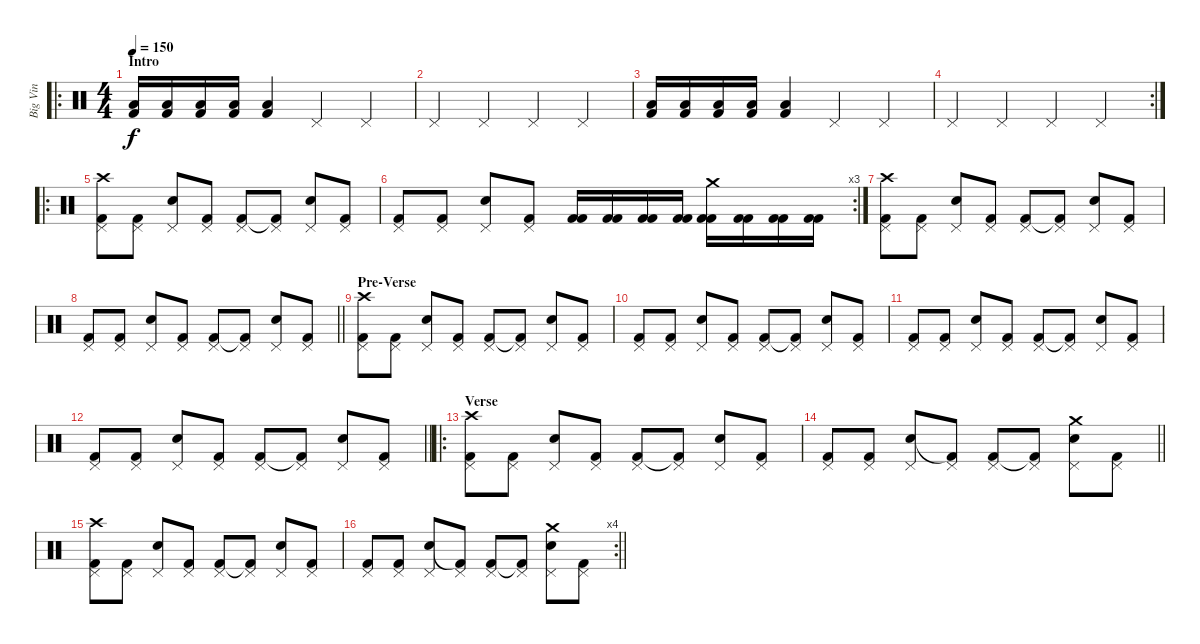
\track ("Big Vin" "Big Vin") {instrument percussion}
\staff {score}
\articulation defaults
\ro
\ts (4 4)
\section ("" "Intro")
\tempo 150
\clef neutral
\ks c
("Low Floor Tom (hit)" "Kick (hit) 2").16{dy f} ("Low Floor Tom (hit)" "Kick (hit) 2").16 ("Low Floor Tom (hit)" "Kick (hit) 2").16 ("Low Floor Tom (hit)" "Kick (hit) 2").16 ("Low Floor Tom (hit)" "Kick (hit) 2").4 "Pedal Hi-Hat (hit)".4 "Pedal Hi-Hat (hit)".4 |
"Pedal Hi-Hat (hit)".4 "Pedal Hi-Hat (hit)".4 "Pedal Hi-Hat (hit)".4 "Pedal Hi-Hat (hit)".4 |
("Low Floor Tom (hit)" "Kick (hit) 2").16 ("Low Floor Tom (hit)" "Kick (hit) 2").16 ("Low Floor Tom (hit)" "Kick (hit) 2").16 ("Low Floor Tom (hit)" "Kick (hit) 2").16 ("Low Floor Tom (hit)" "Kick (hit) 2").4 "Pedal Hi-Hat (hit)".4 "Pedal Hi-Hat (hit)".4 |
\rc 2 "Pedal Hi-Hat (hit)".4 "Pedal Hi-Hat (hit)".4 "Pedal Hi-Hat (hit)".4 "Pedal Hi-Hat (hit)".4
|
\ro
("Crash high (hit)" "Pedal Hi-Hat (hit)" "Kick (hit) 2").8 ("Pedal Hi-Hat (hit)" "Kick (hit) 2").8 ("Pedal Hi-Hat (hit)" "Electric Snare (hit)").8 ("Pedal Hi-Hat (hit)" "Kick (hit) 2").8 ("Pedal Hi-Hat (hit)" "Kick (hit) 2").8 ("Pedal Hi-Hat (hit)" "Kick (hit) 2"{t}).8 ("Pedal Hi-Hat (hit)" "Electric Snare (hit)").8 ("Pedal Hi-Hat (hit)" "Kick (hit) 2").8 |
\rc 3
("Pedal Hi-Hat (hit)" "Kick (hit) 2").8 ("Pedal Hi-Hat (hit)" "Kick (hit) 2").8 ("Pedal Hi-Hat (hit)" "Electric Snare (hit)").8 ("Pedal Hi-Hat (hit)" "Kick (hit) 2").8 ("Kick (hit) 2" "Kick (hit) 2").16 ("Kick (hit) 2" "Kick (hit) 2").16 ("Kick (hit) 2" "Kick (hit) 2").16 ("Kick (hit) 2" "Kick (hit) 2").16 ("Crash medium (hit)" "Kick (hit) 2" "Kick (hit) 2").16 ("Kick (hit) 2" "Kick (hit) 2").16 ("Kick (hit) 2" "Kick (hit) 2").16 ("Kick (hit) 2" "Kick (hit) 2").16 |
("Crash high (hit)" "Pedal Hi-Hat (hit)" "Kick (hit) 2").8 ("Pedal Hi-Hat (hit)" "Kick (hit) 2").8 ("Pedal Hi-Hat (hit)" "Electric Snare (hit)").8 ("Pedal Hi-Hat (hit)" "Kick (hit) 2").8 ("Pedal Hi-Hat (hit)" "Kick (hit) 2").8 ("Pedal Hi-Hat (hit)" "Kick (hit) 2"{t}).8 ("Pedal Hi-Hat (hit)" "Electric Snare (hit)").8 ("Pedal Hi-Hat (hit)" "Kick (hit) 2").8 |
\barLineRight lightlight
("Pedal Hi-Hat (hit)" "Kick (hit) 2").8 ("Pedal Hi-Hat (hit)" "Kick (hit) 2").8 ("Pedal Hi-Hat (hit)" "Electric Snare (hit)").8 ("Pedal Hi-Hat (hit)" "Kick (hit) 2").8 ("Pedal Hi-Hat (hit)" "Kick (hit) 2").8 ("Pedal Hi-Hat (hit)" "Kick (hit) 2"{t}).8 ("Pedal Hi-Hat (hit)" "Electric Snare (hit)").8 ("Pedal Hi-Hat (hit)" "Kick (hit) 2").8 |
\section ("" "Pre-Verse")
("Crash high (hit)" "Pedal Hi-Hat (hit)" "Kick (hit) 2").8 ("Pedal Hi-Hat (hit)" "Kick (hit) 2").8 ("Pedal Hi-Hat (hit)" "Electric Snare (hit)").8 ("Pedal Hi-Hat (hit)" "Kick (hit) 2").8 ("Pedal Hi-Hat (hit)" "Kick (hit) 2").8 ("Pedal Hi-Hat (hit)" "Kick (hit) 2"{t}).8 ("Pedal Hi-Hat (hit)" "Electric Snare (hit)").8 ("Pedal Hi-Hat (hit)" "Kick (hit) 2").8 |
("Pedal Hi-Hat (hit)" "Kick (hit) 2").8 ("Pedal Hi-Hat (hit)" "Kick (hit) 2").8 ("Pedal Hi-Hat (hit)" "Electric Snare (hit)").8 ("Pedal Hi-Hat (hit)" "Kick (hit) 2").8 ("Pedal Hi-Hat (hit)" "Kick (hit) 2").8 ("Pedal Hi-Hat (hit)" "Kick (hit) 2"{t}).8 ("Pedal Hi-Hat (hit)" "Electric Snare (hit)").8 ("Pedal Hi-Hat (hit)" "Kick (hit) 2").8 |
("Pedal Hi-Hat (hit)" "Kick (hit) 2").8 ("Pedal Hi-Hat (hit)" "Kick (hit) 2").8 ("Pedal Hi-Hat (hit)" "Electric Snare (hit)").8 ("Pedal Hi-Hat (hit)" "Kick (hit) 2").8 ("Pedal Hi-Hat (hit)" "Kick (hit) 2").8 ("Pedal Hi-Hat (hit)" "Kick (hit) 2"{t}).8 ("Pedal Hi-Hat (hit)" "Electric Snare (hit)").8 ("Pedal Hi-Hat (hit)" "Kick (hit) 2").8 |
\barLineRight lightlight
("Pedal Hi-Hat (hit)" "Kick (hit) 2").8 ("Pedal Hi-Hat (hit)" "Kick (hit) 2").8 ("Pedal Hi-Hat (hit)" "Electric Snare (hit)").8 ("Pedal Hi-Hat (hit)" "Kick (hit) 2").8 ("Pedal Hi-Hat (hit)" "Kick (hit) 2").8 ("Pedal Hi-Hat (hit)" "Kick (hit) 2"{t}).8 ("Pedal Hi-Hat (hit)" "Electric Snare (hit)").8 ("Pedal Hi-Hat (hit)" "Kick (hit) 2").8 |
\ro
\section ("" "Verse")
("Crash high (hit)" "Pedal Hi-Hat (hit)" "Kick (hit) 2").8 ("Pedal Hi-Hat (hit)" "Kick (hit) 2").8 ("Pedal Hi-Hat (hit)" "Electric Snare (hit)").8 ("Pedal Hi-Hat (hit)" "Kick (hit) 2").8 ("Pedal Hi-Hat (hit)" "Kick (hit) 2").8 ("Pedal Hi-Hat (hit)" "Kick (hit) 2"{t}).8 ("Pedal Hi-Hat (hit)" "Electric Snare (hit)").8 ("Pedal Hi-Hat (hit)" "Kick (hit) 2").8 |
\barLineRight lightlight
("Pedal Hi-Hat (hit)" "Kick (hit) 2").8 ("Pedal Hi-Hat (hit)" "Kick (hit) 2").8 ("Pedal Hi-Hat (hit)" "Electric Snare (hit)").8 ("Pedal Hi-Hat (hit)" "Kick (hit) 2"{t}).8 ("Pedal Hi-Hat (hit)" "Kick (hit) 2").8 ("Pedal Hi-Hat (hit)" "Kick (hit) 2"{t}).8 ("Crash medium (hit)" "Pedal Hi-Hat (hit)" "Electric Snare (hit)").8 ("Pedal Hi-Hat (hit)" "Kick (hit) 2").8 |
("Crash high (hit)" "Pedal Hi-Hat (hit)" "Kick (hit) 2").8 ("Pedal Hi-Hat (hit)" "Kick (hit) 2").8 ("Pedal Hi-Hat (hit)" "Electric Snare (hit)").8 ("Pedal Hi-Hat (hit)" "Kick (hit) 2").8 ("Pedal Hi-Hat (hit)" "Kick (hit) 2").8 ("Pedal Hi-Hat (hit)" "Kick (hit) 2"{t}).8 ("Pedal Hi-Hat (hit)" "Electric Snare (hit)").8 ("Pedal Hi-Hat (hit)" "Kick (hit) 2").8 |
\rc 4
\barLineRight lightlight
("Pedal Hi-Hat (hit)" "Kick (hit) 2").8 ("Pedal Hi-Hat (hit)" "Kick (hit) 2").8 ("Pedal Hi-Hat (hit)" "Electric Snare (hit)").8 ("Pedal Hi-Hat (hit)" "Kick (hit) 2"{t}).8 ("Pedal Hi-Hat (hit)" "Kick (hit) 2").8 ("Pedal Hi-Hat (hit)" "Kick (hit) 2"{t}).8 ("Crash medium (hit)" "Pedal Hi-Hat (hit)" "Electric Snare (hit)").8 ("Pedal Hi-Hat (hit)" "Kick (hit) 2").8
